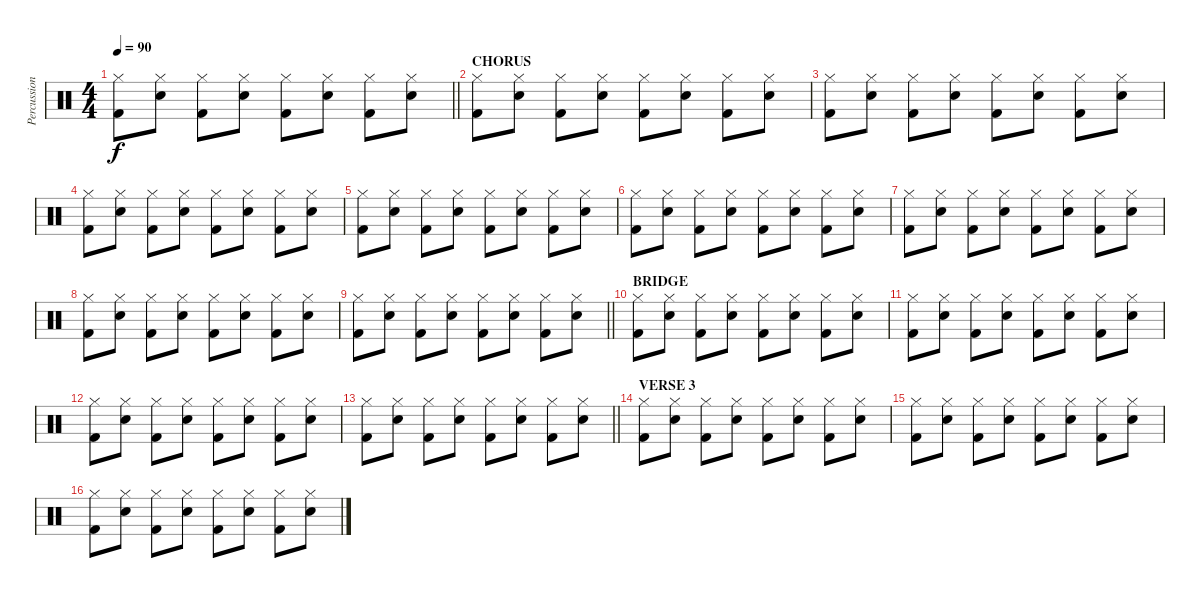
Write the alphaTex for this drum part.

\track ("Percussions" "Percussion") {instrument percussion}
\staff {score}
\articulation defaults
\ts (4 4)
\tempo 90
\clef neutral
\barLineRight lightlight
\ks c
("Hi-Hat (closed)" "Kick (hit) 2").8{dy f} ("Hi-Hat (closed)" "Electric Snare (hit)").8 ("Hi-Hat (closed)" "Kick (hit) 2").8 ("Hi-Hat (closed)" "Electric Snare (hit)").8 ("Hi-Hat (closed)" "Kick (hit) 2").8 ("Hi-Hat (closed)" "Electric Snare (hit)").8 ("Hi-Hat (closed)" "Kick (hit) 2").8 ("Hi-Hat (closed)" "Electric Snare (hit)").8 |
\section ("" "CHORUS")
("Hi-Hat (closed)" "Kick (hit) 2").8 ("Hi-Hat (closed)" "Electric Snare (hit)").8 ("Hi-Hat (closed)" "Kick (hit) 2").8 ("Hi-Hat (closed)" "Electric Snare (hit)").8 ("Hi-Hat (closed)" "Kick (hit) 2").8 ("Hi-Hat (closed)" "Electric Snare (hit)").8 ("Hi-Hat (closed)" "Kick (hit) 2").8 ("Hi-Hat (closed)" "Electric Snare (hit)").8 |
("Hi-Hat (closed)" "Kick (hit) 2").8 ("Hi-Hat (closed)" "Electric Snare (hit)").8 ("Hi-Hat (closed)" "Kick (hit) 2").8 ("Hi-Hat (closed)" "Electric Snare (hit)").8 ("Hi-Hat (closed)" "Kick (hit) 2").8 ("Hi-Hat (closed)" "Electric Snare (hit)").8 ("Hi-Hat (closed)" "Kick (hit) 2").8 ("Hi-Hat (closed)" "Electric Snare (hit)").8 |
("Hi-Hat (closed)" "Kick (hit) 2").8 ("Hi-Hat (closed)" "Electric Snare (hit)").8 ("Hi-Hat (closed)" "Kick (hit) 2").8 ("Hi-Hat (closed)" "Electric Snare (hit)").8 ("Hi-Hat (closed)" "Kick (hit) 2").8 ("Hi-Hat (closed)" "Electric Snare (hit)").8 ("Hi-Hat (closed)" "Kick (hit) 2").8 ("Hi-Hat (closed)" "Electric Snare (hit)").8 |
("Hi-Hat (closed)" "Kick (hit) 2").8 ("Hi-Hat (closed)" "Electric Snare (hit)").8 ("Hi-Hat (closed)" "Kick (hit) 2").8 ("Hi-Hat (closed)" "Electric Snare (hit)").8 ("Hi-Hat (closed)" "Kick (hit) 2").8 ("Hi-Hat (closed)" "Electric Snare (hit)").8 ("Hi-Hat (closed)" "Kick (hit) 2").8 ("Hi-Hat (closed)" "Electric Snare (hit)").8 |
("Hi-Hat (closed)" "Kick (hit) 2").8 ("Hi-Hat (closed)" "Electric Snare (hit)").8 ("Hi-Hat (closed)" "Kick (hit) 2").8 ("Hi-Hat (closed)" "Electric Snare (hit)").8 ("Hi-Hat (closed)" "Kick (hit) 2").8 ("Hi-Hat (closed)" "Electric Snare (hit)").8 ("Hi-Hat (closed)" "Kick (hit) 2").8 ("Hi-Hat (closed)" "Electric Snare (hit)").8 |
("Hi-Hat (closed)" "Kick (hit) 2").8 ("Hi-Hat (closed)" "Electric Snare (hit)").8 ("Hi-Hat (closed)" "Kick (hit) 2").8 ("Hi-Hat (closed)" "Electric Snare (hit)").8 ("Hi-Hat (closed)" "Kick (hit) 2").8 ("Hi-Hat (closed)" "Electric Snare (hit)").8 ("Hi-Hat (closed)" "Kick (hit) 2").8 ("Hi-Hat (closed)" "Electric Snare (hit)").8 |
("Hi-Hat (closed)" "Kick (hit) 2").8 ("Hi-Hat (closed)" "Electric Snare (hit)").8 ("Hi-Hat (closed)" "Kick (hit) 2").8 ("Hi-Hat (closed)" "Electric Snare (hit)").8 ("Hi-Hat (closed)" "Kick (hit) 2").8 ("Hi-Hat (closed)" "Electric Snare (hit)").8 ("Hi-Hat (closed)" "Kick (hit) 2").8 ("Hi-Hat (closed)" "Electric Snare (hit)").8 |
\barLineRight lightlight
("Hi-Hat (closed)" "Kick (hit) 2").8 ("Hi-Hat (closed)" "Electric Snare (hit)").8 ("Hi-Hat (closed)" "Kick (hit) 2").8 ("Hi-Hat (closed)" "Electric Snare (hit)").8 ("Hi-Hat (closed)" "Kick (hit) 2").8 ("Hi-Hat (closed)" "Electric Snare (hit)").8 ("Hi-Hat (closed)" "Kick (hit) 2").8 ("Hi-Hat (closed)" "Electric Snare (hit)").8 |
\section ("" "BRIDGE")
("Hi-Hat (closed)" "Kick (hit) 2").8 ("Hi-Hat (closed)" "Electric Snare (hit)").8 ("Hi-Hat (closed)" "Kick (hit) 2").8 ("Hi-Hat (closed)" "Electric Snare (hit)").8 ("Hi-Hat (closed)" "Kick (hit) 2").8 ("Hi-Hat (closed)" "Electric Snare (hit)").8 ("Hi-Hat (closed)" "Kick (hit) 2").8 ("Hi-Hat (closed)" "Electric Snare (hit)").8 |
("Hi-Hat (closed)" "Kick (hit) 2").8 ("Hi-Hat (closed)" "Electric Snare (hit)").8 ("Hi-Hat (closed)" "Kick (hit) 2").8 ("Hi-Hat (closed)" "Electric Snare (hit)").8 ("Hi-Hat (closed)" "Kick (hit) 2").8 ("Hi-Hat (closed)" "Electric Snare (hit)").8 ("Hi-Hat (closed)" "Kick (hit) 2").8 ("Hi-Hat (closed)" "Electric Snare (hit)").8 |
("Hi-Hat (closed)" "Kick (hit) 2").8 ("Hi-Hat (closed)" "Electric Snare (hit)").8 ("Hi-Hat (closed)" "Kick (hit) 2").8 ("Hi-Hat (closed)" "Electric Snare (hit)").8 ("Hi-Hat (closed)" "Kick (hit) 2").8 ("Hi-Hat (closed)" "Electric Snare (hit)").8 ("Hi-Hat (closed)" "Kick (hit) 2").8 ("Hi-Hat (closed)" "Electric Snare (hit)").8 |
\barLineRight lightlight
("Hi-Hat (closed)" "Kick (hit) 2").8 ("Hi-Hat (closed)" "Electric Snare (hit)").8 ("Hi-Hat (closed)" "Kick (hit) 2").8 ("Hi-Hat (closed)" "Electric Snare (hit)").8 ("Hi-Hat (closed)" "Kick (hit) 2").8 ("Hi-Hat (closed)" "Electric Snare (hit)").8 ("Hi-Hat (closed)" "Kick (hit) 2").8 ("Hi-Hat (closed)" "Electric Snare (hit)").8 |
\section ("" "VERSE 3")
("Hi-Hat (closed)" "Kick (hit) 2").8 ("Hi-Hat (closed)" "Electric Snare (hit)").8 ("Hi-Hat (closed)" "Kick (hit) 2").8 ("Hi-Hat (closed)" "Electric Snare (hit)").8 ("Hi-Hat (closed)" "Kick (hit) 2").8 ("Hi-Hat (closed)" "Electric Snare (hit)").8 ("Hi-Hat (closed)" "Kick (hit) 2").8 ("Hi-Hat (closed)" "Electric Snare (hit)").8 |
("Hi-Hat (closed)" "Kick (hit) 2").8 ("Hi-Hat (closed)" "Electric Snare (hit)").8 ("Hi-Hat (closed)" "Kick (hit) 2").8 ("Hi-Hat (closed)" "Electric Snare (hit)").8 ("Hi-Hat (closed)" "Kick (hit) 2").8 ("Hi-Hat (closed)" "Electric Snare (hit)").8 ("Hi-Hat (closed)" "Kick (hit) 2").8 ("Hi-Hat (closed)" "Electric Snare (hit)").8 |
("Hi-Hat (closed)" "Kick (hit) 2").8 ("Hi-Hat (closed)" "Electric Snare (hit)").8 ("Hi-Hat (closed)" "Kick (hit) 2").8 ("Hi-Hat (closed)" "Electric Snare (hit)").8 ("Hi-Hat (closed)" "Kick (hit) 2").8 ("Hi-Hat (closed)" "Electric Snare (hit)").8 ("Hi-Hat (closed)" "Kick (hit) 2").8 ("Hi-Hat (closed)" "Electric Snare (hit)").8
